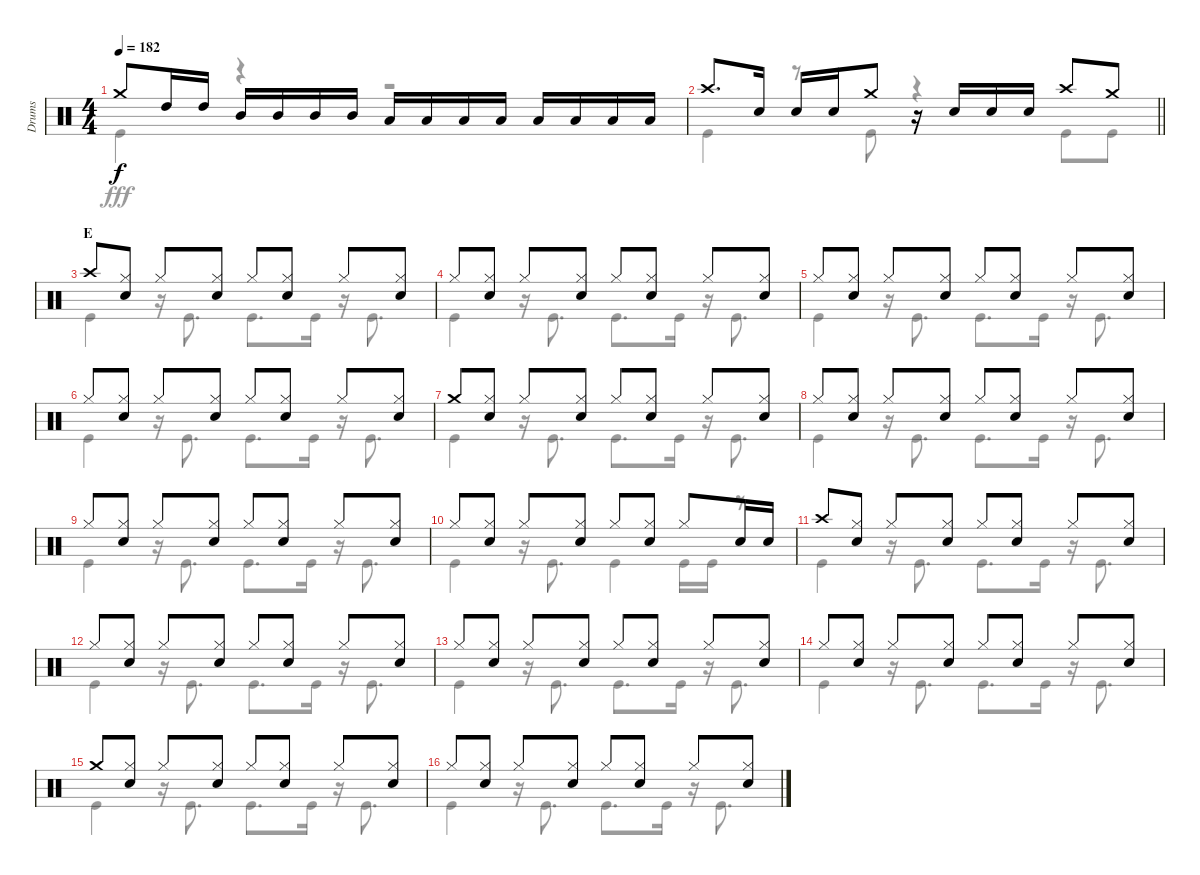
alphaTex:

\track ("Drums" "Drums") {instrument percussion}
\staff {score}
\articulation defaults
\voice
\ts (4 4)
\tempo 182
\clef neutral
\ks c "Crash medium (hit)".8{dy f} "High Tom (hit)".16 "High Tom (hit)".16 "Mid Tom (hit)".16 "Mid Tom (hit)".16 "Mid Tom (hit)".16 "Mid Tom (hit)".16 "Low Tom (hit)".16 "Low Tom (hit)".16 "Low Tom (hit)".16 "Low Tom (hit)".16 "Low Tom (hit)".16 "Low Tom (hit)".16 "Low Tom (hit)".16 "Low Tom (hit)".16
|
\barLineRight lightlight "Crash high (hit)".8{d} "Snare (hit) 2".16 "Snare (hit) 2".16 "Snare (hit) 2".16 "Crash medium (hit)".8
r.16 "Snare (hit) 2".16 "Snare (hit) 2".16 "Snare (hit) 2".16 "Crash high (hit)".8 "Crash medium (hit)".8 |
\section ("" "E")
"Crash high (hit)".8 ("Hi-Hat (closed)" "Snare (hit) 2").8 "Hi-Hat (closed)".8 ("Hi-Hat (closed)" "Snare (hit) 2").8 "Hi-Hat (closed)".8 ("Hi-Hat (closed)" "Snare (hit) 2").8 "Hi-Hat (closed)".8 ("Hi-Hat (closed)" "Snare (hit) 2").8 |
"Hi-Hat (closed)".8 ("Hi-Hat (closed)" "Snare (hit) 2").8 "Hi-Hat (closed)".8 ("Hi-Hat (closed)" "Snare (hit) 2").8 "Hi-Hat (closed)".8 ("Hi-Hat (closed)" "Snare (hit) 2").8 "Hi-Hat (closed)".8 ("Hi-Hat (closed)" "Snare (hit) 2").8 |
"Hi-Hat (closed)".8 ("Hi-Hat (closed)" "Snare (hit) 2").8 "Hi-Hat (closed)".8 ("Hi-Hat (closed)" "Snare (hit) 2").8 "Hi-Hat (closed)".8 ("Hi-Hat (closed)" "Snare (hit) 2").8 "Hi-Hat (closed)".8 ("Hi-Hat (closed)" "Snare (hit) 2").8 |
"Hi-Hat (closed)".8 ("Hi-Hat (closed)" "Snare (hit) 2").8 "Hi-Hat (closed)".8 ("Hi-Hat (closed)" "Snare (hit) 2").8 "Hi-Hat (closed)".8 ("Hi-Hat (closed)" "Snare (hit) 2").8 "Hi-Hat (closed)".8 ("Hi-Hat (closed)" "Snare (hit) 2").8 |
"Crash medium (hit)".8 ("Hi-Hat (closed)" "Snare (hit) 2").8 "Hi-Hat (closed)".8 ("Hi-Hat (closed)" "Snare (hit) 2").8 "Hi-Hat (closed)".8 ("Hi-Hat (closed)" "Snare (hit) 2").8 "Hi-Hat (closed)".8 ("Hi-Hat (closed)" "Snare (hit) 2").8 |
"Hi-Hat (closed)".8 ("Hi-Hat (closed)" "Snare (hit) 2").8 "Hi-Hat (closed)".8 ("Hi-Hat (closed)" "Snare (hit) 2").8 "Hi-Hat (closed)".8 ("Hi-Hat (closed)" "Snare (hit) 2").8 "Hi-Hat (closed)".8 ("Hi-Hat (closed)" "Snare (hit) 2").8 |
"Hi-Hat (closed)".8 ("Hi-Hat (closed)" "Snare (hit) 2").8 "Hi-Hat (closed)".8 ("Hi-Hat (closed)" "Snare (hit) 2").8 "Hi-Hat (closed)".8 ("Hi-Hat (closed)" "Snare (hit) 2").8 "Hi-Hat (closed)".8 ("Hi-Hat (closed)" "Snare (hit) 2").8 |
"Hi-Hat (closed)".8 ("Hi-Hat (closed)" "Snare (hit) 2").8 "Hi-Hat (closed)".8 ("Hi-Hat (closed)" "Snare (hit) 2").8 "Hi-Hat (closed)".8 ("Hi-Hat (closed)" "Snare (hit) 2").8 "Hi-Hat (closed)".8 "Snare (hit) 2".16 "Snare (hit) 2".16 |
"Crash high (hit)".8 ("Hi-Hat (closed)" "Snare (hit) 2").8 "Hi-Hat (closed)".8 ("Hi-Hat (closed)" "Snare (hit) 2").8 "Hi-Hat (closed)".8 ("Hi-Hat (closed)" "Snare (hit) 2").8 "Hi-Hat (closed)".8 ("Hi-Hat (closed)" "Snare (hit) 2").8 |
"Hi-Hat (closed)".8 ("Hi-Hat (closed)" "Snare (hit) 2").8 "Hi-Hat (closed)".8 ("Hi-Hat (closed)" "Snare (hit) 2").8 "Hi-Hat (closed)".8 ("Hi-Hat (closed)" "Snare (hit) 2").8 "Hi-Hat (closed)".8 ("Hi-Hat (closed)" "Snare (hit) 2").8 |
"Hi-Hat (closed)".8 ("Hi-Hat (closed)" "Snare (hit) 2").8 "Hi-Hat (closed)".8 ("Hi-Hat (closed)" "Snare (hit) 2").8 "Hi-Hat (closed)".8 ("Hi-Hat (closed)" "Snare (hit) 2").8 "Hi-Hat (closed)".8 ("Hi-Hat (closed)" "Snare (hit) 2").8 |
"Hi-Hat (closed)".8 ("Hi-Hat (closed)" "Snare (hit) 2").8 "Hi-Hat (closed)".8 ("Hi-Hat (closed)" "Snare (hit) 2").8 "Hi-Hat (closed)".8 ("Hi-Hat (closed)" "Snare (hit) 2").8 "Hi-Hat (closed)".8 ("Hi-Hat (closed)" "Snare (hit) 2").8 |
"Crash medium (hit)".8 ("Hi-Hat (closed)" "Snare (hit) 2").8 "Hi-Hat (closed)".8 ("Hi-Hat (closed)" "Snare (hit) 2").8 "Hi-Hat (closed)".8 ("Hi-Hat (closed)" "Snare (hit) 2").8 "Hi-Hat (closed)".8 ("Hi-Hat (closed)" "Snare (hit) 2").8 |
"Hi-Hat (closed)".8 ("Hi-Hat (closed)" "Snare (hit) 2").8 "Hi-Hat (closed)".8 ("Hi-Hat (closed)" "Snare (hit) 2").8 "Hi-Hat (closed)".8 ("Hi-Hat (closed)" "Snare (hit) 2").8 "Hi-Hat (closed)".8 ("Hi-Hat (closed)" "Snare (hit) 2").8
\voice
\clef neutral
\ottava regular
\simile none
\ks c "Kick (hit)".4{dy fff}
r.4 r.2 |
\barLineRight lightlight "Kick (hit)".4
r.8 "Kick (hit)".8 r.4 "Kick (hit)".8 "Kick (hit)".8 |
"Kick (hit)".4 r.16 "Kick (hit)".8{d} "Kick (hit)".8{d} "Kick (hit)".16 r.16 "Kick (hit)".8{d} |
"Kick (hit)".4 r.16 "Kick (hit)".8{d} "Kick (hit)".8{d} "Kick (hit)".16 r.16 "Kick (hit)".8{d} |
"Kick (hit)".4 r.16 "Kick (hit)".8{d} "Kick (hit)".8{d} "Kick (hit)".16 r.16 "Kick (hit)".8{d} |
"Kick (hit)".4 r.16 "Kick (hit)".8{d} "Kick (hit)".8{d} "Kick (hit)".16 r.16 "Kick (hit)".8{d} |
"Kick (hit)".4 r.16 "Kick (hit)".8{d} "Kick (hit)".8{d} "Kick (hit)".16 r.16 "Kick (hit)".8{d} |
"Kick (hit)".4 r.16 "Kick (hit)".8{d} "Kick (hit)".8{d} "Kick (hit)".16 r.16 "Kick (hit)".8{d} |
"Kick (hit)".4 r.16 "Kick (hit)".8{d} "Kick (hit)".8{d} "Kick (hit)".16 r.16 "Kick (hit)".8{d} |
"Kick (hit)".4 r.16 "Kick (hit)".8{d} "Kick (hit)".4 "Kick (hit)".16 "Kick (hit)".16 r.8 |
"Kick (hit)".4 r.16 "Kick (hit)".8{d} "Kick (hit)".8{d} "Kick (hit)".16 r.16 "Kick (hit)".8{d} |
"Kick (hit)".4 r.16 "Kick (hit)".8{d} "Kick (hit)".8{d} "Kick (hit)".16 r.16 "Kick (hit)".8{d} |
"Kick (hit)".4 r.16 "Kick (hit)".8{d} "Kick (hit)".8{d} "Kick (hit)".16 r.16 "Kick (hit)".8{d} |
"Kick (hit)".4 r.16 "Kick (hit)".8{d} "Kick (hit)".8{d} "Kick (hit)".16 r.16 "Kick (hit)".8{d} |
"Kick (hit)".4 r.16 "Kick (hit)".8{d} "Kick (hit)".8{d} "Kick (hit)".16 r.16 "Kick (hit)".8{d} |
"Kick (hit)".4 r.16 "Kick (hit)".8{d} "Kick (hit)".8{d} "Kick (hit)".16 r.16 "Kick (hit)".8{d}
